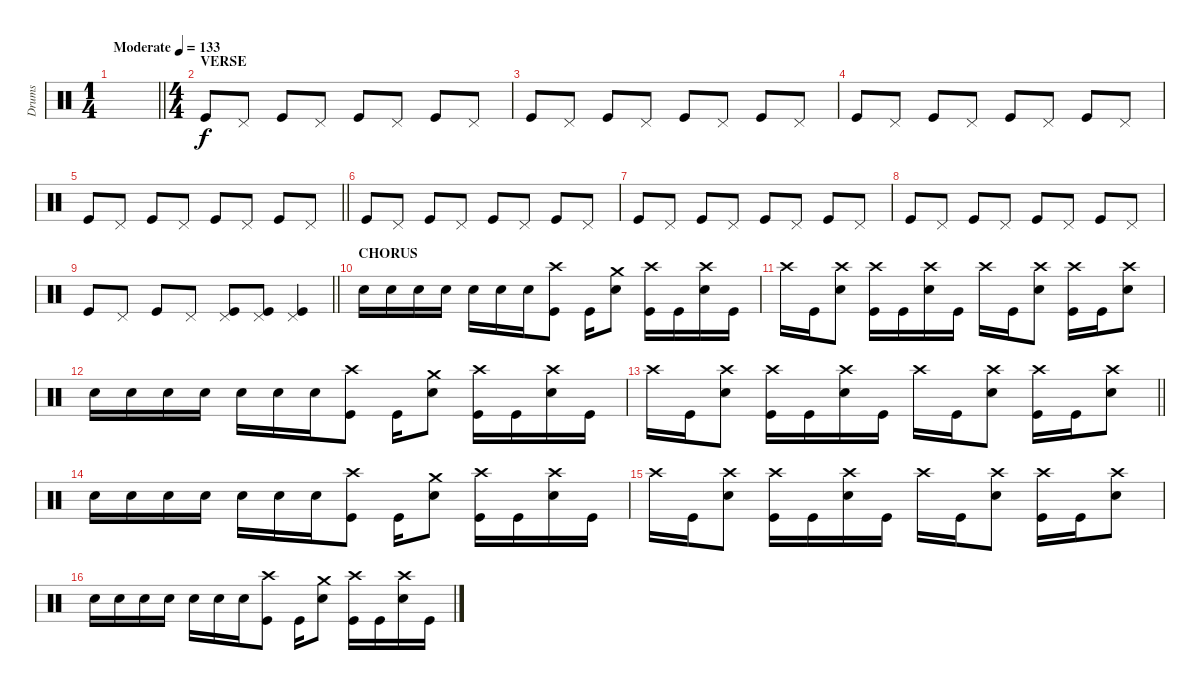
\track ("Drums" "Drums") {instrument percussion}
\staff
\articulation defaults
\ts (1 4)
\tempo (133 "Moderate")
\clef neutral
\barLineRight lightlight
\ks c
|
\ts (4 4)
\section ("" "VERSE")
"Kick (hit)".8 "Pedal Hi-Hat (hit)".8 "Kick (hit)".8 "Pedal Hi-Hat (hit)".8 "Kick (hit)".8 "Pedal Hi-Hat (hit)".8 "Kick (hit)".8 "Pedal Hi-Hat (hit)".8 |
"Kick (hit)".8 "Pedal Hi-Hat (hit)".8 "Kick (hit)".8 "Pedal Hi-Hat (hit)".8 "Kick (hit)".8 "Pedal Hi-Hat (hit)".8 "Kick (hit)".8 "Pedal Hi-Hat (hit)".8 |
"Kick (hit)".8 "Pedal Hi-Hat (hit)".8 "Kick (hit)".8 "Pedal Hi-Hat (hit)".8 "Kick (hit)".8 "Pedal Hi-Hat (hit)".8 "Kick (hit)".8 "Pedal Hi-Hat (hit)".8 |
\barLineRight lightlight "Kick (hit)".8 "Pedal Hi-Hat (hit)".8 "Kick (hit)".8 "Pedal Hi-Hat (hit)".8 "Kick (hit)".8 "Pedal Hi-Hat (hit)".8 "Kick (hit)".8 "Pedal Hi-Hat (hit)".8
|
"Kick (hit)".8 "Pedal Hi-Hat (hit)".8 "Kick (hit)".8 "Pedal Hi-Hat (hit)".8 "Kick (hit)".8 "Pedal Hi-Hat (hit)".8 "Kick (hit)".8 "Pedal Hi-Hat (hit)".8 |
"Kick (hit)".8 "Pedal Hi-Hat (hit)".8 "Kick (hit)".8 "Pedal Hi-Hat (hit)".8 "Kick (hit)".8 "Pedal Hi-Hat (hit)".8 "Kick (hit)".8 "Pedal Hi-Hat (hit)".8 |
"Kick (hit)".8 "Pedal Hi-Hat (hit)".8 "Kick (hit)".8 "Pedal Hi-Hat (hit)".8 "Kick (hit)".8 "Pedal Hi-Hat (hit)".8 "Kick (hit)".8 "Pedal Hi-Hat (hit)".8 |
\barLineRight lightlight "Kick (hit)".8 "Pedal Hi-Hat (hit)".8 "Kick (hit)".8 "Pedal Hi-Hat (hit)".8
("Pedal Hi-Hat (hit)" "Kick (hit)").8 ("Pedal Hi-Hat (hit)" "Kick (hit)").8 ("Pedal Hi-Hat (hit)" "Kick (hit)").4 |
\section ("" "CHORUS")
"Electric Snare (hit)".16 "Electric Snare (hit)".16 "Electric Snare (hit)".16 "Electric Snare (hit)".16 "Electric Snare (hit)".16 "Electric Snare (hit)".16 "Electric Snare (hit)".16 ("Crash high (hit)" "Kick (hit)").8 "Kick (hit)".16 ("Crash medium (hit)" "Electric Snare (hit)").8 ("Crash high (hit)" "Kick (hit)").16 "Kick (hit)".16 ("Crash high (hit)" "Electric Snare (hit)").16 "Kick (hit)".16 |
"Crash high (hit)".16 "Kick (hit)".16 ("Crash high (hit)" "Electric Snare (hit)").8 ("Crash high (hit)" "Kick (hit)").16 "Kick (hit)".16 ("Crash high (hit)" "Electric Snare (hit)").16 "Kick (hit)".16 "Crash high (hit)".16 "Kick (hit)".16 ("Crash high (hit)" "Electric Snare (hit)").8 ("Crash high (hit)" "Kick (hit)").16 "Kick (hit)".16 ("Crash high (hit)" "Electric Snare (hit)").8 |
"Electric Snare (hit)".16 "Electric Snare (hit)".16 "Electric Snare (hit)".16 "Electric Snare (hit)".16 "Electric Snare (hit)".16 "Electric Snare (hit)".16 "Electric Snare (hit)".16 ("Crash high (hit)" "Kick (hit)").8 "Kick (hit)".16 ("Crash medium (hit)" "Electric Snare (hit)").8 ("Crash high (hit)" "Kick (hit)").16 "Kick (hit)".16 ("Crash high (hit)" "Electric Snare (hit)").16 "Kick (hit)".16 |
\barLineRight lightlight "Crash high (hit)".16 "Kick (hit)".16
("Crash high (hit)" "Electric Snare (hit)").8 ("Crash high (hit)" "Kick (hit)").16 "Kick (hit)".16 ("Crash high (hit)" "Electric Snare (hit)").16 "Kick (hit)".16 "Crash high (hit)".16 "Kick (hit)".16 ("Crash high (hit)" "Electric Snare (hit)").8 ("Crash high (hit)" "Kick (hit)").16 "Kick (hit)".16 ("Crash high (hit)" "Electric Snare (hit)").8 |
"Electric Snare (hit)".16 "Electric Snare (hit)".16 "Electric Snare (hit)".16 "Electric Snare (hit)".16 "Electric Snare (hit)".16 "Electric Snare (hit)".16 "Electric Snare (hit)".16 ("Crash high (hit)" "Kick (hit)").8 "Kick (hit)".16 ("Crash medium (hit)" "Electric Snare (hit)").8 ("Crash high (hit)" "Kick (hit)").16 "Kick (hit)".16 ("Crash high (hit)" "Electric Snare (hit)").16 "Kick (hit)".16 |
"Crash high (hit)".16 "Kick (hit)".16 ("Crash high (hit)" "Electric Snare (hit)").8 ("Crash high (hit)" "Kick (hit)").16 "Kick (hit)".16 ("Crash high (hit)" "Electric Snare (hit)").16 "Kick (hit)".16 "Crash high (hit)".16 "Kick (hit)".16 ("Crash high (hit)" "Electric Snare (hit)").8 ("Crash high (hit)" "Kick (hit)").16 "Kick (hit)".16 ("Crash high (hit)" "Electric Snare (hit)").8 |
"Electric Snare (hit)".16 "Electric Snare (hit)".16 "Electric Snare (hit)".16 "Electric Snare (hit)".16 "Electric Snare (hit)".16 "Electric Snare (hit)".16 "Electric Snare (hit)".16 ("Crash high (hit)" "Kick (hit)").8 "Kick (hit)".16 ("Crash medium (hit)" "Electric Snare (hit)").8 ("Crash high (hit)" "Kick (hit)").16 "Kick (hit)".16 ("Crash high (hit)" "Electric Snare (hit)").16 "Kick (hit)".16
